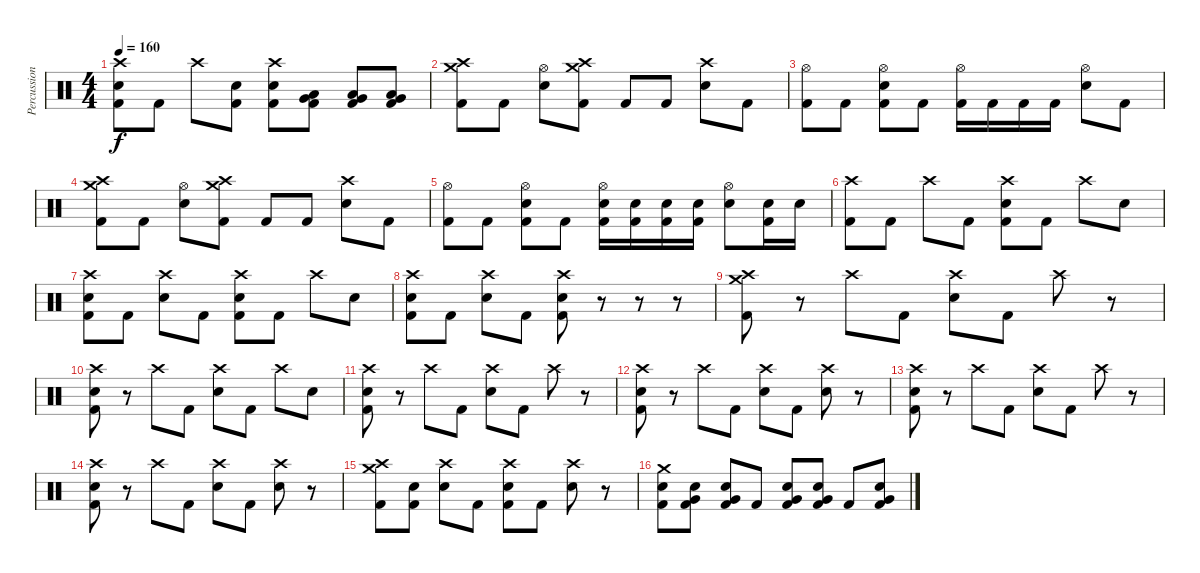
\track ("Percussion" "Percussion") {instrument percussion}
\staff {score}
\articulation defaults
\ts (4 4)
\tempo 160
\clef neutral
\ks c
("Crash high (hit)" "Electric Snare (hit)" "Kick (hit) 2").8{dy f} "Kick (hit) 2".8 "Crash high (hit)".8 ("Electric Snare (hit)" "Kick (hit) 2").8 ("Crash high (hit)" "Electric Snare (hit)" "Kick (hit) 2").8 ("Low Floor Tom (hit)" "Very Low Tom (hit)" "Kick (hit) 2").8 ("Low Floor Tom (hit)" "Very Low Tom (hit)" "Kick (hit) 2").8 ("Low Floor Tom (hit)" "Very Low Tom (hit)" "Kick (hit) 2").8 |
("Crash medium (hit)" "Crash high (hit)" "Kick (hit) 2").8 "Kick (hit) 2".8 ("Hi-Hat (open)" "Electric Snare (hit)").8 ("Crash medium (hit)" "Crash high (hit)" "Kick (hit) 2").8 "Kick (hit) 2".8 "Kick (hit) 2".8 ("Crash high (hit)" "Electric Snare (hit)").8 "Kick (hit) 2".8 |
("Hi-Hat (open)" "Kick (hit) 2").8 "Kick (hit) 2".8 ("Hi-Hat (open)" "Electric Snare (hit)" "Kick (hit) 2").8 "Kick (hit) 2".8 ("Hi-Hat (open)" "Kick (hit) 2").16 "Kick (hit) 2".16 "Kick (hit) 2".16 "Kick (hit) 2".16 ("Hi-Hat (open)" "Electric Snare (hit)").8 "Kick (hit) 2".8 |
("Crash medium (hit)" "Crash high (hit)" "Kick (hit) 2").8 "Kick (hit) 2".8 ("Hi-Hat (open)" "Electric Snare (hit)").8 ("Crash medium (hit)" "Crash high (hit)" "Kick (hit) 2").8 "Kick (hit) 2".8 "Kick (hit) 2".8 ("Crash high (hit)" "Electric Snare (hit)").8 "Kick (hit) 2".8 |
("Hi-Hat (open)" "Kick (hit) 2").8 "Kick (hit) 2".8 ("Hi-Hat (open)" "Electric Snare (hit)" "Kick (hit) 2").8 "Kick (hit) 2".8 ("Hi-Hat (open)" "Electric Snare (hit)" "Kick (hit) 2").16 ("Electric Snare (hit)" "Kick (hit) 2").16 ("Electric Snare (hit)" "Kick (hit) 2").16 ("Electric Snare (hit)" "Kick (hit) 2").16 ("Hi-Hat (open)" "Electric Snare (hit)").8 ("Electric Snare (hit)" "Kick (hit) 2").16 "Electric Snare (hit)".16 |
("Crash high (hit)" "Kick (hit) 2").8 "Kick (hit) 2".8 "Crash high (hit)".8 "Kick (hit) 2".8 ("Crash high (hit)" "Electric Snare (hit)" "Kick (hit) 2").8 "Kick (hit) 2".8 "Crash high (hit)".8 "Electric Snare (hit)".8 |
("Crash high (hit)" "Electric Snare (hit)" "Kick (hit) 2").8 "Kick (hit) 2".8 ("Crash high (hit)" "Electric Snare (hit)").8 "Kick (hit) 2".8 ("Crash high (hit)" "Electric Snare (hit)" "Kick (hit) 2").8 "Kick (hit) 2".8 "Crash high (hit)".8 "Electric Snare (hit)".8 |
("Crash high (hit)" "Electric Snare (hit)" "Kick (hit) 2").8 "Kick (hit) 2".8 ("Crash high (hit)" "Electric Snare (hit)").8 "Kick (hit) 2".8 ("Crash high (hit)" "Electric Snare (hit)" "Kick (hit) 2").8 r.8 r.8 r.8 |
("Crash medium (hit)" "Crash high (hit)" "Kick (hit) 2").8 r.8 "Crash high (hit)".8 "Kick (hit) 2".8 ("Crash high (hit)" "Electric Snare (hit)").8 "Kick (hit) 2".8 "Crash high (hit)".8 r.8 |
("Crash high (hit)" "Electric Snare (hit)" "Kick (hit) 2").8 r.8 "Crash high (hit)".8 "Kick (hit) 2".8 ("Crash high (hit)" "Electric Snare (hit)").8 "Kick (hit) 2".8 "Crash high (hit)".8 "Electric Snare (hit)".8 |
("Crash high (hit)" "Electric Snare (hit)" "Kick (hit) 2").8 r.8 "Crash high (hit)".8 "Kick (hit) 2".8 ("Crash high (hit)" "Electric Snare (hit)").8 "Kick (hit) 2".8 "Crash high (hit)".8 r.8 |
("Crash high (hit)" "Electric Snare (hit)" "Kick (hit) 2").8 r.8 "Crash high (hit)".8 "Kick (hit) 2".8 ("Crash high (hit)" "Electric Snare (hit)").8 "Kick (hit) 2".8 ("Crash high (hit)" "Electric Snare (hit)").8 r.8 |
("Crash high (hit)" "Electric Snare (hit)" "Kick (hit) 2").8 r.8 "Crash high (hit)".8 "Kick (hit) 2".8 ("Crash high (hit)" "Electric Snare (hit)").8 "Kick (hit) 2".8 "Crash high (hit)".8 r.8 |
("Crash high (hit)" "Electric Snare (hit)" "Kick (hit) 2").8 r.8 "Crash high (hit)".8 "Kick (hit) 2".8 ("Crash high (hit)" "Electric Snare (hit)").8 "Kick (hit) 2".8 ("Crash high (hit)" "Electric Snare (hit)").8 r.8 |
("Crash medium (hit)" "Crash high (hit)" "Kick (hit) 2").8 ("Electric Snare (hit)" "Kick (hit) 2").8 ("Crash high (hit)" "Electric Snare (hit)").8 "Kick (hit) 2".8 ("Crash high (hit)" "Electric Snare (hit)" "Kick (hit) 2").8 "Kick (hit) 2".8 ("Crash high (hit)" "Electric Snare (hit)").8 r.8 |
("Crash medium (hit)" "Electric Snare (hit)" "Kick (hit) 2").8 ("Very Low Tom (hit)" "Electric Snare (hit)" "Kick (hit) 2").8 ("Very Low Tom (hit)" "Electric Snare (hit)" "Kick (hit) 2").8 "Kick (hit) 2".8 ("Very Low Tom (hit)" "Electric Snare (hit)" "Kick (hit) 2").8 ("Very Low Tom (hit)" "Electric Snare (hit)" "Kick (hit) 2").8 "Kick (hit) 2".8 ("Very Low Tom (hit)" "Electric Snare (hit)" "Kick (hit) 2").8
